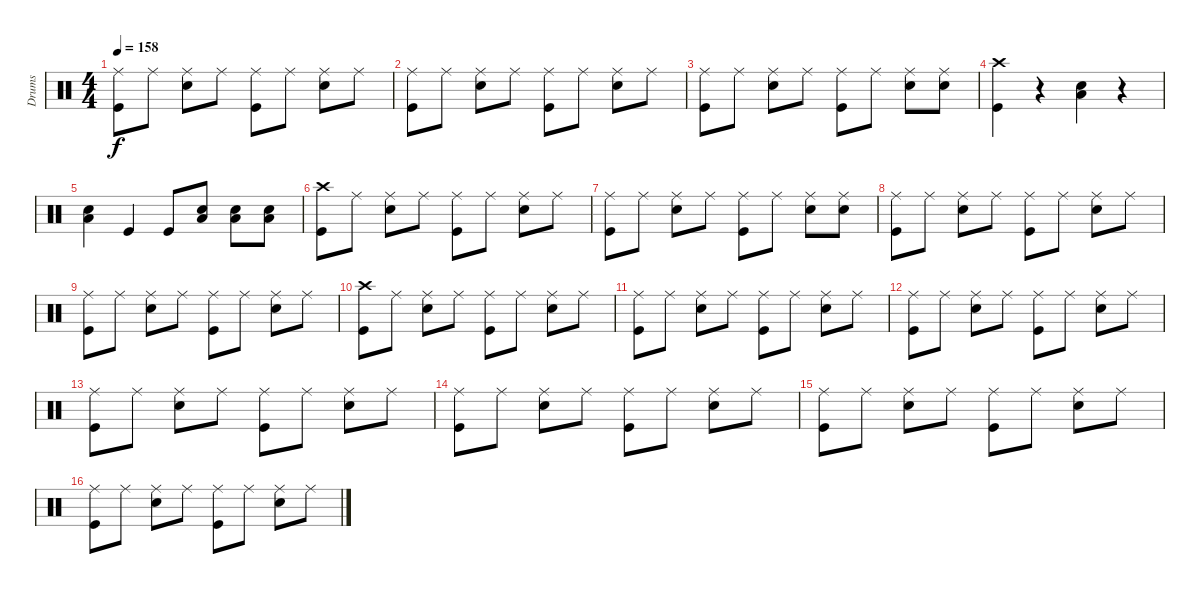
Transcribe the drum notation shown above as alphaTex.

\track ("Drums" "Drums") {instrument percussion}
\staff {score}
\articulation defaults
\ts (4 4)
\tempo 158
\clef neutral
\ks c
("Ride (middle)" "Kick (hit)").8{dy f} "Ride (middle)".8 ("Ride (middle)" "Snare (hit) 2").8 "Ride (middle)".8 ("Ride (middle)" "Kick (hit)").8 "Ride (middle)".8 ("Ride (middle)" "Snare (hit) 2").8 "Ride (middle)".8 |
("Ride (middle)" "Kick (hit)").8 "Ride (middle)".8 ("Ride (middle)" "Snare (hit) 2").8 "Ride (middle)".8 ("Ride (middle)" "Kick (hit)").8 "Ride (middle)".8 ("Ride (middle)" "Snare (hit) 2").8 "Ride (middle)".8 |
("Ride (middle)" "Kick (hit)").8 "Ride (middle)".8 ("Ride (middle)" "Snare (hit) 2").8 "Ride (middle)".8 ("Ride (middle)" "Kick (hit)").8 "Ride (middle)".8 ("Ride (middle)" "Snare (hit) 2").8 ("Ride (middle)" "Snare (hit) 2").8 |
("Crash high (hit)" "Kick (hit)").4 r.4 ("Snare (hit) 2" "Low Floor Tom (hit)").4 r.4 |
("Snare (hit) 2" "Low Floor Tom (hit)").4 "Kick (hit)".4 "Kick (hit)".8 ("Snare (hit) 2" "Low Floor Tom (hit)").8 ("Snare (hit) 2" "Low Floor Tom (hit)").8 ("Snare (hit) 2" "Low Floor Tom (hit)").8 |
("Crash high (hit)" "Kick (hit)").8 "Ride (middle)".8 ("Ride (middle)" "Snare (hit) 2").8 "Ride (middle)".8 ("Ride (middle)" "Kick (hit)").8 "Ride (middle)".8 ("Ride (middle)" "Snare (hit) 2").8 "Ride (middle)".8 |
("Ride (middle)" "Kick (hit)").8 "Ride (middle)".8 ("Ride (middle)" "Snare (hit) 2").8 "Ride (middle)".8 ("Ride (middle)" "Kick (hit)").8 "Ride (middle)".8 ("Ride (middle)" "Snare (hit) 2").8 ("Ride (middle)" "Snare (hit) 2").8 |
("Ride (middle)" "Kick (hit)").8 "Ride (middle)".8 ("Ride (middle)" "Snare (hit) 2").8 "Ride (middle)".8 ("Ride (middle)" "Kick (hit)").8 "Ride (middle)".8 ("Ride (middle)" "Snare (hit) 2").8 "Ride (middle)".8 |
("Ride (middle)" "Kick (hit)").8 "Ride (middle)".8 ("Ride (middle)" "Snare (hit) 2").8 "Ride (middle)".8 ("Ride (middle)" "Kick (hit)").8 "Ride (middle)".8 ("Ride (middle)" "Snare (hit) 2").8 "Ride (middle)".8 |
("Crash high (hit)" "Kick (hit)").8 "Ride (middle)".8 ("Ride (middle)" "Snare (hit) 2").8 "Ride (middle)".8 ("Ride (middle)" "Kick (hit)").8 "Ride (middle)".8 ("Ride (middle)" "Snare (hit) 2").8 "Ride (middle)".8 |
("Ride (middle)" "Kick (hit)").8 "Ride (middle)".8 ("Ride (middle)" "Snare (hit) 2").8 "Ride (middle)".8 ("Ride (middle)" "Kick (hit)").8 "Ride (middle)".8 ("Ride (middle)" "Snare (hit) 2").8 "Ride (middle)".8 |
("Ride (middle)" "Kick (hit)").8 "Ride (middle)".8 ("Ride (middle)" "Snare (hit) 2").8 "Ride (middle)".8 ("Ride (middle)" "Kick (hit)").8 "Ride (middle)".8 ("Ride (middle)" "Snare (hit) 2").8 "Ride (middle)".8 |
("Ride (middle)" "Kick (hit)").8 "Ride (middle)".8 ("Ride (middle)" "Snare (hit) 2").8 "Ride (middle)".8 ("Ride (middle)" "Kick (hit)").8 "Ride (middle)".8 ("Ride (middle)" "Snare (hit) 2").8 "Ride (middle)".8 |
("Ride (middle)" "Kick (hit)").8 "Ride (middle)".8 ("Ride (middle)" "Snare (hit) 2").8 "Ride (middle)".8 ("Ride (middle)" "Kick (hit)").8 "Ride (middle)".8 ("Ride (middle)" "Snare (hit) 2").8 "Ride (middle)".8 |
("Ride (middle)" "Kick (hit)").8 "Ride (middle)".8 ("Ride (middle)" "Snare (hit) 2").8 "Ride (middle)".8 ("Ride (middle)" "Kick (hit)").8 "Ride (middle)".8 ("Ride (middle)" "Snare (hit) 2").8 "Ride (middle)".8 |
("Ride (middle)" "Kick (hit)").8 "Ride (middle)".8 ("Ride (middle)" "Snare (hit) 2").8 "Ride (middle)".8 ("Ride (middle)" "Kick (hit)").8 "Ride (middle)".8 ("Ride (middle)" "Snare (hit) 2").8 "Ride (middle)".8
